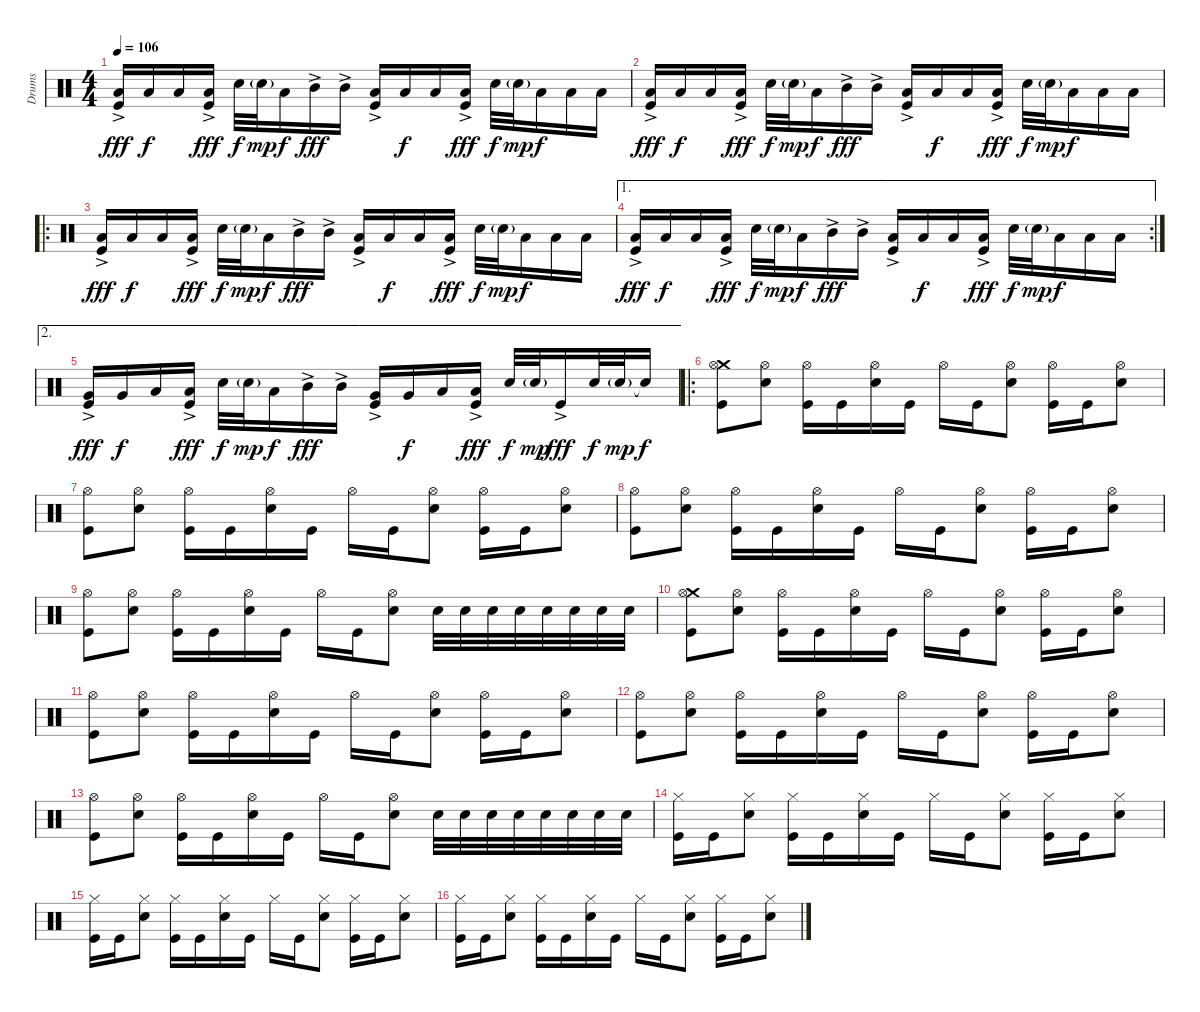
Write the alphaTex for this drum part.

\track ("Drums" "Drums") {instrument percussion}
\staff {score}
\articulation defaults
\ts (4 4)
\tempo 106
\clef neutral
\ks c
("Low Floor Tom (hit)" "Kick (hit)"{ac}).16{dy fff} "Low Floor Tom (hit)".16{dy f} "Low Floor Tom (hit)".16 ("Low Floor Tom (hit)" "Kick (hit)"{ac}).16{dy fff} "Snare (hit) 2".32{dy f} "Snare (hit) 2"{g}.32{dy mp} "Low Floor Tom (hit)".16{dy f} "Mid Tom (hit)"{ac}.16{dy fff} "Mid Tom (hit)"{ac}.16 ("Low Floor Tom (hit)" "Kick (hit)"{ac}).16 "Low Floor Tom (hit)".16{dy f} "Low Floor Tom (hit)".16 ("Low Floor Tom (hit)" "Kick (hit)"{ac}).16{dy fff} "Snare (hit) 2".32{dy f} "Snare (hit) 2"{g}.32{dy mp} "Low Floor Tom (hit)".16{dy f} "Low Floor Tom (hit)".16 "Low Floor Tom (hit)".16 |
("Low Floor Tom (hit)" "Kick (hit)"{ac}).16{dy fff} "Low Floor Tom (hit)".16{dy f} "Low Floor Tom (hit)".16 ("Low Floor Tom (hit)" "Kick (hit)"{ac}).16{dy fff} "Snare (hit) 2".32{dy f} "Snare (hit) 2"{g}.32{dy mp} "Low Floor Tom (hit)".16{dy f} "Mid Tom (hit)"{ac}.16{dy fff} "Mid Tom (hit)"{ac}.16 ("Low Floor Tom (hit)" "Kick (hit)"{ac}).16 "Low Floor Tom (hit)".16{dy f} "Low Floor Tom (hit)".16 ("Low Floor Tom (hit)" "Kick (hit)"{ac}).16{dy fff} "Snare (hit) 2".32{dy f} "Snare (hit) 2"{g}.32{dy mp} "Low Floor Tom (hit)".16{dy f} "Low Floor Tom (hit)".16 "Low Floor Tom (hit)".16 |
\ro
("Low Floor Tom (hit)" "Kick (hit)"{ac}).16{dy fff} "Low Floor Tom (hit)".16{dy f} "Low Floor Tom (hit)".16 ("Low Floor Tom (hit)" "Kick (hit)"{ac}).16{dy fff} "Snare (hit) 2".32{dy f} "Snare (hit) 2"{g}.32{dy mp} "Low Floor Tom (hit)".16{dy f} "Mid Tom (hit)"{ac}.16{dy fff} "Mid Tom (hit)"{ac}.16 ("Low Floor Tom (hit)" "Kick (hit)"{ac}).16 "Low Floor Tom (hit)".16{dy f} "Low Floor Tom (hit)".16 ("Low Floor Tom (hit)" "Kick (hit)"{ac}).16{dy fff} "Snare (hit) 2".32{dy f} "Snare (hit) 2"{g}.32{dy mp} "Low Floor Tom (hit)".16{dy f} "Low Floor Tom (hit)".16 "Low Floor Tom (hit)".16 |
\ae 1
\rc 2
("Low Floor Tom (hit)" "Kick (hit)"{ac}).16{dy fff} "Low Floor Tom (hit)".16{dy f} "Low Floor Tom (hit)".16 ("Low Floor Tom (hit)" "Kick (hit)"{ac}).16{dy fff} "Snare (hit) 2".32{dy f} "Snare (hit) 2"{g}.32{dy mp} "Low Floor Tom (hit)".16{dy f} "Mid Tom (hit)"{ac}.16{dy fff} "Mid Tom (hit)"{ac}.16 ("Low Floor Tom (hit)" "Kick (hit)"{ac}).16 "Low Floor Tom (hit)".16{dy f} "Low Floor Tom (hit)".16 ("Low Floor Tom (hit)" "Kick (hit)"{ac}).16{dy fff} "Snare (hit) 2".32{dy f} "Snare (hit) 2"{g}.32{dy mp} "Low Floor Tom (hit)".16{dy f} "Low Floor Tom (hit)".16 "Low Floor Tom (hit)".16 |
\ae 2
("Very Low Tom (hit)" "Kick (hit)"{ac}).16{dy fff} "Very Low Tom (hit)".16{dy f} "Low Floor Tom (hit)".16 ("Low Floor Tom (hit)" "Kick (hit)"{ac}).16{dy fff} "Snare (hit) 2".32{dy f} "Snare (hit) 2"{g}.32{dy mp} "Low Floor Tom (hit)".16{dy f} "Mid Tom (hit)"{ac}.16{dy fff} "Mid Tom (hit)"{ac}.16 ("Very Low Tom (hit)" "Kick (hit)"{ac}).16 "Very Low Tom (hit)".16{dy f} "Low Floor Tom (hit)".16 ("Low Floor Tom (hit)" "Kick (hit)"{ac}).16{dy fff} "Snare (hit) 2".32{dy f} "Snare (hit) 2"{g}.32{dy mp} "Kick (hit)"{ac}.16{dy fff} "Snare (hit) 2".32{dy f} "Snare (hit) 2"{g}.32{dy mp} "Snare (hit)"{t}.16{dy f} |
\ro
("Crash medium (hit)" "Hi-Hat (open)" "Kick (hit)").8 ("Hi-Hat (open)" "Snare (hit) 2").8 ("Hi-Hat (open)" "Kick (hit)").16 "Kick (hit)".16 ("Hi-Hat (open)" "Snare (hit) 2").16 "Kick (hit)".16 "Hi-Hat (open)".16 "Kick (hit)".16 ("Hi-Hat (open)" "Snare (hit) 2").8 ("Hi-Hat (open)" "Kick (hit)").16 "Kick (hit)".16 ("Hi-Hat (open)" "Snare (hit) 2").8 |
("Hi-Hat (open)" "Kick (hit)").8 ("Hi-Hat (open)" "Snare (hit) 2").8 ("Hi-Hat (open)" "Kick (hit)").16 "Kick (hit)".16 ("Hi-Hat (open)" "Snare (hit) 2").16 "Kick (hit)".16 "Hi-Hat (open)".16 "Kick (hit)".16 ("Hi-Hat (open)" "Snare (hit) 2").8 ("Hi-Hat (open)" "Kick (hit)").16 "Kick (hit)".16 ("Hi-Hat (open)" "Snare (hit) 2").8 |
("Hi-Hat (open)" "Kick (hit)").8 ("Hi-Hat (open)" "Snare (hit) 2").8 ("Hi-Hat (open)" "Kick (hit)").16 "Kick (hit)".16 ("Hi-Hat (open)" "Snare (hit) 2").16 "Kick (hit)".16 "Hi-Hat (open)".16 "Kick (hit)".16 ("Hi-Hat (open)" "Snare (hit) 2").8 ("Hi-Hat (open)" "Kick (hit)").16 "Kick (hit)".16 ("Hi-Hat (open)" "Snare (hit) 2").8 |
("Hi-Hat (open)" "Kick (hit)").8 ("Hi-Hat (open)" "Snare (hit) 2").8 ("Hi-Hat (open)" "Kick (hit)").16 "Kick (hit)".16 ("Hi-Hat (open)" "Snare (hit) 2").16 "Kick (hit)".16 "Hi-Hat (open)".16 "Kick (hit)".16 ("Hi-Hat (open)" "Snare (hit) 2").8 "Snare (hit) 2".32 "Snare (hit) 2".32 "Snare (hit) 2".32 "Snare (hit) 2".32 "Snare (hit) 2".32 "Snare (hit) 2".32 "Snare (hit) 2".32 "Snare (hit) 2".32 |
("Crash medium (hit)" "Hi-Hat (open)" "Kick (hit)").8 ("Hi-Hat (open)" "Snare (hit) 2").8 ("Hi-Hat (open)" "Kick (hit)").16 "Kick (hit)".16 ("Hi-Hat (open)" "Snare (hit) 2").16 "Kick (hit)".16 "Hi-Hat (open)".16 "Kick (hit)".16 ("Hi-Hat (open)" "Snare (hit) 2").8 ("Hi-Hat (open)" "Kick (hit)").16 "Kick (hit)".16 ("Hi-Hat (open)" "Snare (hit) 2").8 |
("Hi-Hat (open)" "Kick (hit)").8 ("Hi-Hat (open)" "Snare (hit) 2").8 ("Hi-Hat (open)" "Kick (hit)").16 "Kick (hit)".16 ("Hi-Hat (open)" "Snare (hit) 2").16 "Kick (hit)".16 "Hi-Hat (open)".16 "Kick (hit)".16 ("Hi-Hat (open)" "Snare (hit) 2").8 ("Hi-Hat (open)" "Kick (hit)").16 "Kick (hit)".16 ("Hi-Hat (open)" "Snare (hit) 2").8 |
("Hi-Hat (open)" "Kick (hit)").8 ("Hi-Hat (open)" "Snare (hit) 2").8 ("Hi-Hat (open)" "Kick (hit)").16 "Kick (hit)".16 ("Hi-Hat (open)" "Snare (hit) 2").16 "Kick (hit)".16 "Hi-Hat (open)".16 "Kick (hit)".16 ("Hi-Hat (open)" "Snare (hit) 2").8 ("Hi-Hat (open)" "Kick (hit)").16 "Kick (hit)".16 ("Hi-Hat (open)" "Snare (hit) 2").8 |
("Hi-Hat (open)" "Kick (hit)").8 ("Hi-Hat (open)" "Snare (hit) 2").8 ("Hi-Hat (open)" "Kick (hit)").16 "Kick (hit)".16 ("Hi-Hat (open)" "Snare (hit) 2").16 "Kick (hit)".16 "Hi-Hat (open)".16 "Kick (hit)".16 ("Hi-Hat (open)" "Snare (hit) 2").8 "Snare (hit) 2".32 "Snare (hit) 2".32 "Snare (hit) 2".32 "Snare (hit) 2".32 "Snare (hit) 2".32 "Snare (hit) 2".32 "Snare (hit) 2".32 "Snare (hit) 2".32 |
("Hi-Hat (closed)" "Kick (hit)").16 "Kick (hit)".16 ("Hi-Hat (closed)" "Snare (hit) 2").8 ("Hi-Hat (closed)" "Kick (hit)").16 "Kick (hit)".16 ("Hi-Hat (closed)" "Snare (hit) 2").16 "Kick (hit)".16 "Hi-Hat (closed)".16 "Kick (hit)".16 ("Hi-Hat (closed)" "Snare (hit) 2").8 ("Hi-Hat (closed)" "Kick (hit)").16 "Kick (hit)".16 ("Hi-Hat (closed)" "Snare (hit) 2").8 |
("Hi-Hat (closed)" "Kick (hit)").16 "Kick (hit)".16 ("Hi-Hat (closed)" "Snare (hit) 2").8 ("Hi-Hat (closed)" "Kick (hit)").16 "Kick (hit)".16 ("Hi-Hat (closed)" "Snare (hit) 2").16 "Kick (hit)".16 "Hi-Hat (closed)".16 "Kick (hit)".16 ("Hi-Hat (closed)" "Snare (hit) 2").8 ("Hi-Hat (closed)" "Kick (hit)").16 "Kick (hit)".16 ("Hi-Hat (closed)" "Snare (hit) 2").8 |
("Hi-Hat (closed)" "Kick (hit)").16 "Kick (hit)".16 ("Hi-Hat (closed)" "Snare (hit) 2").8 ("Hi-Hat (closed)" "Kick (hit)").16 "Kick (hit)".16 ("Hi-Hat (closed)" "Snare (hit) 2").16 "Kick (hit)".16 "Hi-Hat (closed)".16 "Kick (hit)".16 ("Hi-Hat (closed)" "Snare (hit) 2").8 ("Hi-Hat (closed)" "Kick (hit)").16 "Kick (hit)".16 ("Hi-Hat (closed)" "Snare (hit) 2").8
